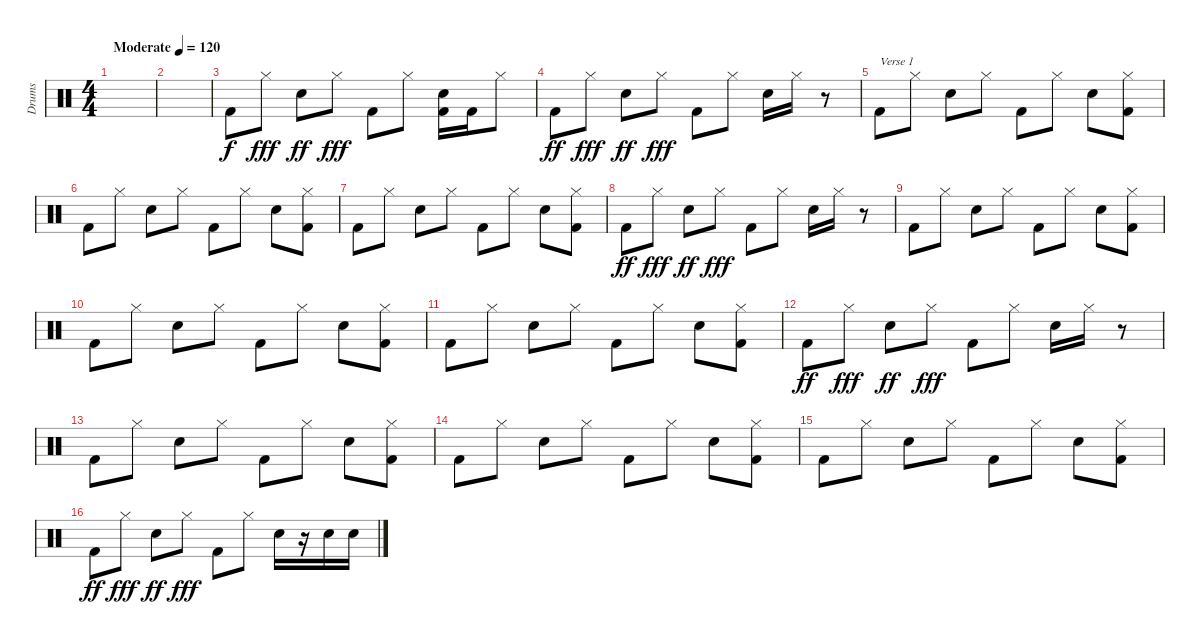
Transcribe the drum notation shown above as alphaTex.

\track ("Drums" "Drums") {instrument percussion}
\staff {score}
\articulation defaults
\ts (4 4)
\tempo (120 "Moderate")
\clef neutral
\ks c
|
|
"Kick (hit) 2".8 "Hi-Hat (closed)".8{dy fff} "Snare (hit) 2".8{dy ff} "Hi-Hat (closed)".8{dy fff} "Kick (hit) 2".8 "Hi-Hat (closed)".8 ("Snare (hit) 2" "Kick (hit) 2").16 "Kick (hit) 2".16 "Hi-Hat (closed)".8 |
"Kick (hit) 2".8{dy ff} "Hi-Hat (closed)".8{dy fff} "Snare (hit) 2".8{dy ff} "Hi-Hat (closed)".8{dy fff} "Kick (hit) 2".8 "Hi-Hat (closed)".8 "Snare (hit) 2".16 "Hi-Hat (closed)".16 r.8 |
"Kick (hit) 2".8{txt "Verse 1"} "Hi-Hat (closed)".8 "Snare (hit) 2".8 "Hi-Hat (closed)".8 "Kick (hit) 2".8 "Hi-Hat (closed)".8 "Snare (hit) 2".8 ("Hi-Hat (closed)" "Kick (hit) 2").8 |
"Kick (hit) 2".8 "Hi-Hat (closed)".8 "Snare (hit) 2".8 "Hi-Hat (closed)".8 "Kick (hit) 2".8 "Hi-Hat (closed)".8 "Snare (hit) 2".8 ("Hi-Hat (closed)" "Kick (hit) 2").8 |
"Kick (hit) 2".8 "Hi-Hat (closed)".8 "Snare (hit) 2".8 "Hi-Hat (closed)".8 "Kick (hit) 2".8 "Hi-Hat (closed)".8 "Snare (hit) 2".8 ("Hi-Hat (closed)" "Kick (hit) 2").8 |
"Kick (hit) 2".8{dy ff} "Hi-Hat (closed)".8{dy fff} "Snare (hit) 2".8{dy ff} "Hi-Hat (closed)".8{dy fff} "Kick (hit) 2".8 "Hi-Hat (closed)".8 "Snare (hit) 2".16 "Hi-Hat (closed)".16 r.8 |
"Kick (hit) 2".8 "Hi-Hat (closed)".8 "Snare (hit) 2".8 "Hi-Hat (closed)".8 "Kick (hit) 2".8 "Hi-Hat (closed)".8 "Snare (hit) 2".8 ("Hi-Hat (closed)" "Kick (hit) 2").8 |
"Kick (hit) 2".8 "Hi-Hat (closed)".8 "Snare (hit) 2".8 "Hi-Hat (closed)".8 "Kick (hit) 2".8 "Hi-Hat (closed)".8 "Snare (hit) 2".8 ("Hi-Hat (closed)" "Kick (hit) 2").8 |
"Kick (hit) 2".8 "Hi-Hat (closed)".8 "Snare (hit) 2".8 "Hi-Hat (closed)".8 "Kick (hit) 2".8 "Hi-Hat (closed)".8 "Snare (hit) 2".8 ("Hi-Hat (closed)" "Kick (hit) 2").8 |
"Kick (hit) 2".8{dy ff} "Hi-Hat (closed)".8{dy fff} "Snare (hit) 2".8{dy ff} "Hi-Hat (closed)".8{dy fff} "Kick (hit) 2".8 "Hi-Hat (closed)".8 "Snare (hit) 2".16 "Hi-Hat (closed)".16 r.8 |
"Kick (hit) 2".8 "Hi-Hat (closed)".8 "Snare (hit) 2".8 "Hi-Hat (closed)".8 "Kick (hit) 2".8 "Hi-Hat (closed)".8 "Snare (hit) 2".8 ("Hi-Hat (closed)" "Kick (hit) 2").8 |
"Kick (hit) 2".8 "Hi-Hat (closed)".8 "Snare (hit) 2".8 "Hi-Hat (closed)".8 "Kick (hit) 2".8 "Hi-Hat (closed)".8 "Snare (hit) 2".8 ("Hi-Hat (closed)" "Kick (hit) 2").8 |
"Kick (hit) 2".8 "Hi-Hat (closed)".8 "Snare (hit) 2".8 "Hi-Hat (closed)".8 "Kick (hit) 2".8 "Hi-Hat (closed)".8 "Snare (hit) 2".8 ("Hi-Hat (closed)" "Kick (hit) 2").8 |
"Kick (hit) 2".8{dy ff} "Hi-Hat (closed)".8{dy fff} "Snare (hit) 2".8{dy ff} "Hi-Hat (closed)".8{dy fff} "Kick (hit) 2".8 "Hi-Hat (closed)".8 "Snare (hit) 2".16 r.16 "Snare (hit) 2".16 "Snare (hit) 2".16
